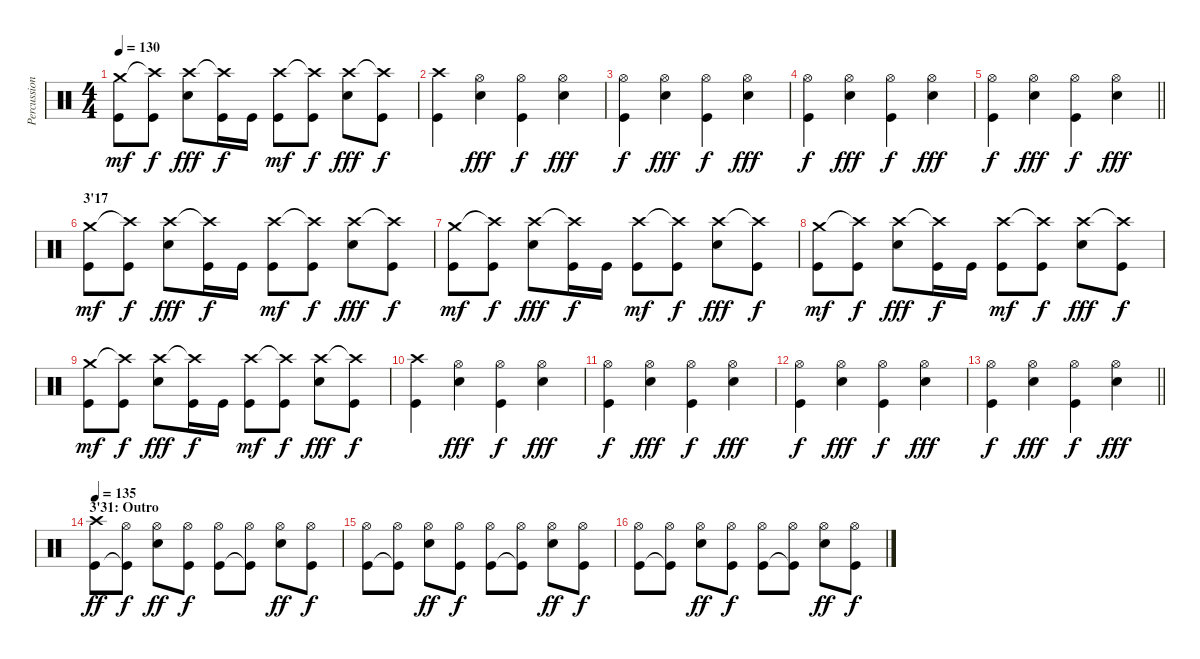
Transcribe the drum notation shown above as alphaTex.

\track ("Percussion" "Percussion") {instrument percussion}
\staff {score}
\articulation defaults
\ts (4 4)
\tempo 130
\clef neutral
\ks c
("Crash medium (hit)" "Kick (hit)").8{dy mf} ("Crash high (hit)"{t} "Kick (hit)").8{dy f} ("Crash high (hit)" "Electric Snare (hit)").8{dy fff} ("Crash high (hit)"{t} "Kick (hit)").16{dy f} "Kick (hit)".16 ("Crash high (hit)" "Kick (hit)").8{dy mf} ("Crash high (hit)"{t} "Kick (hit)").8{dy f} ("Crash high (hit)" "Electric Snare (hit)").8{dy fff} ("Crash high (hit)"{t} "Kick (hit)").8{dy f} |
("Crash high (hit)" "Kick (hit)").4 ("Hi-Hat (open)" "Electric Snare (hit)").4{dy fff} ("Hi-Hat (open)" "Kick (hit)").4{dy f} ("Hi-Hat (open)" "Electric Snare (hit)").4{dy fff} |
("Hi-Hat (open)" "Kick (hit)").4{dy f} ("Hi-Hat (open)" "Electric Snare (hit)").4{dy fff} ("Hi-Hat (open)" "Kick (hit)").4{dy f} ("Hi-Hat (open)" "Electric Snare (hit)").4{dy fff} |
("Hi-Hat (open)" "Kick (hit)").4{dy f} ("Hi-Hat (open)" "Electric Snare (hit)").4{dy fff} ("Hi-Hat (open)" "Kick (hit)").4{dy f} ("Hi-Hat (open)" "Electric Snare (hit)").4{dy fff} |
\barLineRight lightlight
("Hi-Hat (open)" "Kick (hit)").4{dy f} ("Hi-Hat (open)" "Electric Snare (hit)").4{dy fff} ("Hi-Hat (open)" "Kick (hit)").4{dy f} ("Hi-Hat (open)" "Electric Snare (hit)").4{dy fff} |
\section ("" "3'17")
("Crash medium (hit)" "Kick (hit)").8{dy mf} ("Crash high (hit)"{t} "Kick (hit)").8{dy f} ("Crash high (hit)" "Electric Snare (hit)").8{dy fff} ("Crash high (hit)"{t} "Kick (hit)").16{dy f} "Kick (hit)".16 ("Crash high (hit)" "Kick (hit)").8{dy mf} ("Crash high (hit)"{t} "Kick (hit)").8{dy f} ("Crash high (hit)" "Electric Snare (hit)").8{dy fff} ("Crash high (hit)"{t} "Kick (hit)").8{dy f} |
("Crash medium (hit)" "Kick (hit)").8{dy mf} ("Crash high (hit)"{t} "Kick (hit)").8{dy f} ("Crash high (hit)" "Electric Snare (hit)").8{dy fff} ("Crash high (hit)"{t} "Kick (hit)").16{dy f} "Kick (hit)".16 ("Crash high (hit)" "Kick (hit)").8{dy mf} ("Crash high (hit)"{t} "Kick (hit)").8{dy f} ("Crash high (hit)" "Electric Snare (hit)").8{dy fff} ("Crash high (hit)"{t} "Kick (hit)").8{dy f} |
("Crash medium (hit)" "Kick (hit)").8{dy mf} ("Crash high (hit)"{t} "Kick (hit)").8{dy f} ("Crash high (hit)" "Electric Snare (hit)").8{dy fff} ("Crash high (hit)"{t} "Kick (hit)").16{dy f} "Kick (hit)".16 ("Crash high (hit)" "Kick (hit)").8{dy mf} ("Crash high (hit)"{t} "Kick (hit)").8{dy f} ("Crash high (hit)" "Electric Snare (hit)").8{dy fff} ("Crash high (hit)"{t} "Kick (hit)").8{dy f} |
("Crash medium (hit)" "Kick (hit)").8{dy mf} ("Crash high (hit)"{t} "Kick (hit)").8{dy f} ("Crash high (hit)" "Electric Snare (hit)").8{dy fff} ("Crash high (hit)"{t} "Kick (hit)").16{dy f} "Kick (hit)".16 ("Crash high (hit)" "Kick (hit)").8{dy mf} ("Crash high (hit)"{t} "Kick (hit)").8{dy f} ("Crash high (hit)" "Electric Snare (hit)").8{dy fff} ("Crash high (hit)"{t} "Kick (hit)").8{dy f} |
("Crash high (hit)" "Kick (hit)").4 ("Hi-Hat (open)" "Electric Snare (hit)").4{dy fff} ("Hi-Hat (open)" "Kick (hit)").4{dy f} ("Hi-Hat (open)" "Electric Snare (hit)").4{dy fff} |
("Hi-Hat (open)" "Kick (hit)").4{dy f} ("Hi-Hat (open)" "Electric Snare (hit)").4{dy fff} ("Hi-Hat (open)" "Kick (hit)").4{dy f} ("Hi-Hat (open)" "Electric Snare (hit)").4{dy fff} |
("Hi-Hat (open)" "Kick (hit)").4{dy f} ("Hi-Hat (open)" "Electric Snare (hit)").4{dy fff} ("Hi-Hat (open)" "Kick (hit)").4{dy f} ("Hi-Hat (open)" "Electric Snare (hit)").4{dy fff} |
\barLineRight lightlight
("Hi-Hat (open)" "Kick (hit)").4{dy f} ("Hi-Hat (open)" "Electric Snare (hit)").4{dy fff} ("Hi-Hat (open)" "Kick (hit)").4{dy f} ("Hi-Hat (open)" "Electric Snare (hit)").4{dy fff} |
\section ("" "3'31: Outro")
\tempo 135
("Crash high (hit)" "Kick (hit)").8{dy ff} ("Hi-Hat (open)" "Kick (hit)"{t}).8{dy f} ("Hi-Hat (open)" "Electric Snare (hit)").8{dy ff} ("Hi-Hat (open)" "Kick (hit)").8{dy f} ("Hi-Hat (open)" "Kick (hit)").8 ("Hi-Hat (open)" "Kick (hit)"{t}).8 ("Hi-Hat (open)" "Electric Snare (hit)").8{dy ff} ("Hi-Hat (open)" "Kick (hit)").8{dy f} |
("Hi-Hat (open)" "Kick (hit)").8 ("Hi-Hat (open)" "Kick (hit)"{t}).8 ("Hi-Hat (open)" "Electric Snare (hit)").8{dy ff} ("Hi-Hat (open)" "Kick (hit)").8{dy f} ("Hi-Hat (open)" "Kick (hit)").8 ("Hi-Hat (open)" "Kick (hit)"{t}).8 ("Hi-Hat (open)" "Electric Snare (hit)").8{dy ff} ("Hi-Hat (open)" "Kick (hit)").8{dy f} |
("Hi-Hat (open)" "Kick (hit)").8 ("Hi-Hat (open)" "Kick (hit)"{t}).8 ("Hi-Hat (open)" "Electric Snare (hit)").8{dy ff} ("Hi-Hat (open)" "Kick (hit)").8{dy f} ("Hi-Hat (open)" "Kick (hit)").8 ("Hi-Hat (open)" "Kick (hit)"{t}).8 ("Hi-Hat (open)" "Electric Snare (hit)").8{dy ff} ("Hi-Hat (open)" "Kick (hit)").8{dy f}
